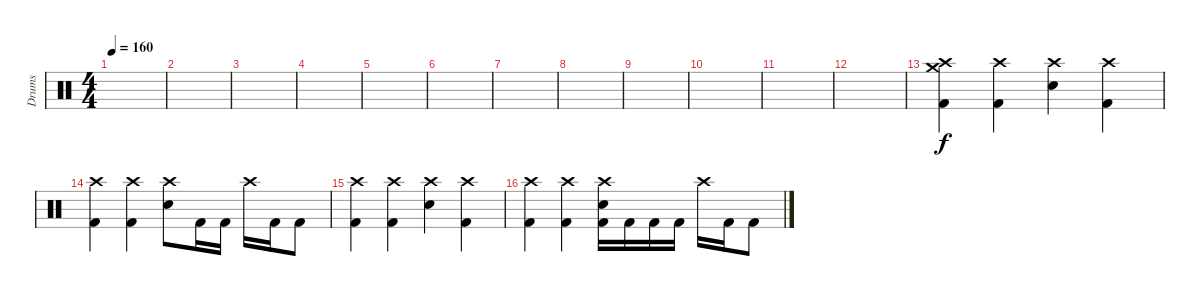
\track ("Drums" "Drums") {instrument percussion}
\staff {score}
\articulation defaults
\ts (4 4)
\tempo 160
\clef neutral
\ks c
|
|
|
|
|
|
|
|
|
|
|
|
("Crash medium (hit)" "Crash high (hit)" "Kick (hit) 2").4 ("Crash high (hit)" "Kick (hit) 2").4 ("Crash high (hit)" "Electric Snare (hit)").4 ("Crash high (hit)" "Kick (hit) 2").4 |
("Crash high (hit)" "Kick (hit) 2").4 ("Crash high (hit)" "Kick (hit) 2").4 ("Crash high (hit)" "Electric Snare (hit)").8 "Kick (hit) 2".16 "Kick (hit) 2".16 "Crash high (hit)".16 "Kick (hit) 2".16 "Kick (hit) 2".8 |
("Crash high (hit)" "Kick (hit) 2").4 ("Crash high (hit)" "Kick (hit) 2").4 ("Crash high (hit)" "Electric Snare (hit)").4 ("Crash high (hit)" "Kick (hit) 2").4 |
("Crash high (hit)" "Kick (hit) 2").4 ("Crash high (hit)" "Kick (hit) 2").4 ("Crash high (hit)" "Electric Snare (hit)" "Kick (hit) 2").16 "Kick (hit) 2".16 "Kick (hit) 2".16 "Kick (hit) 2".16 "Crash high (hit)".16 "Kick (hit) 2".16 "Kick (hit) 2".8
